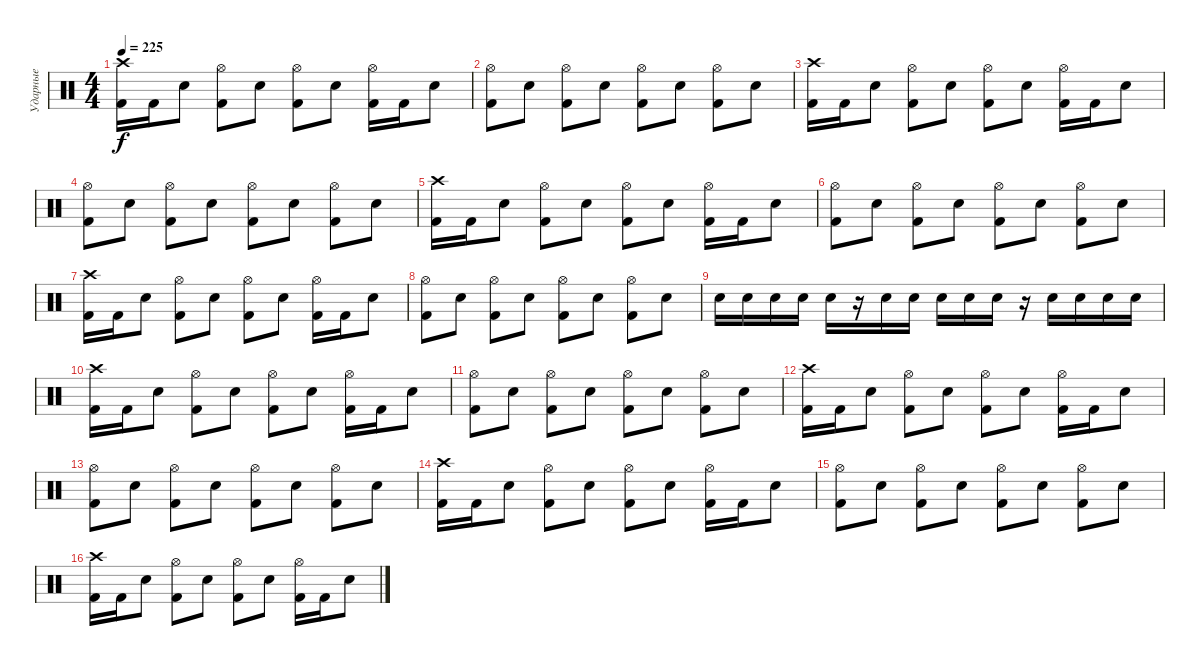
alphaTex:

\track ("Ударные" "Ударные") {instrument percussion}
\staff {score}
\articulation defaults
\ts (4 4)
\tempo 225
\clef neutral
\ks c
("Crash high (hit)" "Kick (hit) 2").16{dy f} "Kick (hit) 2".16 "Electric Snare (hit)".8 ("Hi-Hat (open)" "Kick (hit) 2").8 "Electric Snare (hit)".8 ("Hi-Hat (open)" "Kick (hit) 2").8 "Electric Snare (hit)".8 ("Hi-Hat (open)" "Kick (hit) 2").16 "Kick (hit) 2".16 "Electric Snare (hit)".8 |
("Hi-Hat (open)" "Kick (hit) 2").8 "Electric Snare (hit)".8 ("Hi-Hat (open)" "Kick (hit) 2").8 "Electric Snare (hit)".8 ("Hi-Hat (open)" "Kick (hit) 2").8 "Electric Snare (hit)".8 ("Hi-Hat (open)" "Kick (hit) 2").8 "Electric Snare (hit)".8 |
("Crash high (hit)" "Kick (hit) 2").16 "Kick (hit) 2".16 "Electric Snare (hit)".8 ("Hi-Hat (open)" "Kick (hit) 2").8 "Electric Snare (hit)".8 ("Hi-Hat (open)" "Kick (hit) 2").8 "Electric Snare (hit)".8 ("Hi-Hat (open)" "Kick (hit) 2").16 "Kick (hit) 2".16 "Electric Snare (hit)".8 |
("Hi-Hat (open)" "Kick (hit) 2").8 "Electric Snare (hit)".8 ("Hi-Hat (open)" "Kick (hit) 2").8 "Electric Snare (hit)".8 ("Hi-Hat (open)" "Kick (hit) 2").8 "Electric Snare (hit)".8 ("Hi-Hat (open)" "Kick (hit) 2").8 "Electric Snare (hit)".8 |
("Crash high (hit)" "Kick (hit) 2").16 "Kick (hit) 2".16 "Electric Snare (hit)".8 ("Hi-Hat (open)" "Kick (hit) 2").8 "Electric Snare (hit)".8 ("Hi-Hat (open)" "Kick (hit) 2").8 "Electric Snare (hit)".8 ("Hi-Hat (open)" "Kick (hit) 2").16 "Kick (hit) 2".16 "Electric Snare (hit)".8 |
("Hi-Hat (open)" "Kick (hit) 2").8 "Electric Snare (hit)".8 ("Hi-Hat (open)" "Kick (hit) 2").8 "Electric Snare (hit)".8 ("Hi-Hat (open)" "Kick (hit) 2").8 "Electric Snare (hit)".8 ("Hi-Hat (open)" "Kick (hit) 2").8 "Electric Snare (hit)".8 |
("Crash high (hit)" "Kick (hit) 2").16 "Kick (hit) 2".16 "Electric Snare (hit)".8 ("Hi-Hat (open)" "Kick (hit) 2").8 "Electric Snare (hit)".8 ("Hi-Hat (open)" "Kick (hit) 2").8 "Electric Snare (hit)".8 ("Hi-Hat (open)" "Kick (hit) 2").16 "Kick (hit) 2".16 "Electric Snare (hit)".8 |
("Hi-Hat (open)" "Kick (hit) 2").8 "Electric Snare (hit)".8 ("Hi-Hat (open)" "Kick (hit) 2").8 "Electric Snare (hit)".8 ("Hi-Hat (open)" "Kick (hit) 2").8 "Electric Snare (hit)".8 ("Hi-Hat (open)" "Kick (hit) 2").8 "Electric Snare (hit)".8 |
"Electric Snare (hit)".16 "Electric Snare (hit)".16 "Electric Snare (hit)".16 "Electric Snare (hit)".16 "Electric Snare (hit)".16 r.16 "Electric Snare (hit)".16 "Electric Snare (hit)".16 "Electric Snare (hit)".16 "Electric Snare (hit)".16 "Electric Snare (hit)".16 r.16 "Electric Snare (hit)".16 "Electric Snare (hit)".16 "Electric Snare (hit)".16 "Electric Snare (hit)".16 |
("Crash high (hit)" "Kick (hit) 2").16 "Kick (hit) 2".16 "Electric Snare (hit)".8 ("Hi-Hat (open)" "Kick (hit) 2").8 "Electric Snare (hit)".8 ("Hi-Hat (open)" "Kick (hit) 2").8 "Electric Snare (hit)".8 ("Hi-Hat (open)" "Kick (hit) 2").16 "Kick (hit) 2".16 "Electric Snare (hit)".8 |
("Hi-Hat (open)" "Kick (hit) 2").8 "Electric Snare (hit)".8 ("Hi-Hat (open)" "Kick (hit) 2").8 "Electric Snare (hit)".8 ("Hi-Hat (open)" "Kick (hit) 2").8 "Electric Snare (hit)".8 ("Hi-Hat (open)" "Kick (hit) 2").8 "Electric Snare (hit)".8 |
("Crash high (hit)" "Kick (hit) 2").16 "Kick (hit) 2".16 "Electric Snare (hit)".8 ("Hi-Hat (open)" "Kick (hit) 2").8 "Electric Snare (hit)".8 ("Hi-Hat (open)" "Kick (hit) 2").8 "Electric Snare (hit)".8 ("Hi-Hat (open)" "Kick (hit) 2").16 "Kick (hit) 2".16 "Electric Snare (hit)".8 |
("Hi-Hat (open)" "Kick (hit) 2").8 "Electric Snare (hit)".8 ("Hi-Hat (open)" "Kick (hit) 2").8 "Electric Snare (hit)".8 ("Hi-Hat (open)" "Kick (hit) 2").8 "Electric Snare (hit)".8 ("Hi-Hat (open)" "Kick (hit) 2").8 "Electric Snare (hit)".8 |
("Crash high (hit)" "Kick (hit) 2").16 "Kick (hit) 2".16 "Electric Snare (hit)".8 ("Hi-Hat (open)" "Kick (hit) 2").8 "Electric Snare (hit)".8 ("Hi-Hat (open)" "Kick (hit) 2").8 "Electric Snare (hit)".8 ("Hi-Hat (open)" "Kick (hit) 2").16 "Kick (hit) 2".16 "Electric Snare (hit)".8 |
("Hi-Hat (open)" "Kick (hit) 2").8 "Electric Snare (hit)".8 ("Hi-Hat (open)" "Kick (hit) 2").8 "Electric Snare (hit)".8 ("Hi-Hat (open)" "Kick (hit) 2").8 "Electric Snare (hit)".8 ("Hi-Hat (open)" "Kick (hit) 2").8 "Electric Snare (hit)".8 |
("Crash high (hit)" "Kick (hit) 2").16 "Kick (hit) 2".16 "Electric Snare (hit)".8 ("Hi-Hat (open)" "Kick (hit) 2").8 "Electric Snare (hit)".8 ("Hi-Hat (open)" "Kick (hit) 2").8 "Electric Snare (hit)".8 ("Hi-Hat (open)" "Kick (hit) 2").16 "Kick (hit) 2".16 "Electric Snare (hit)".8
